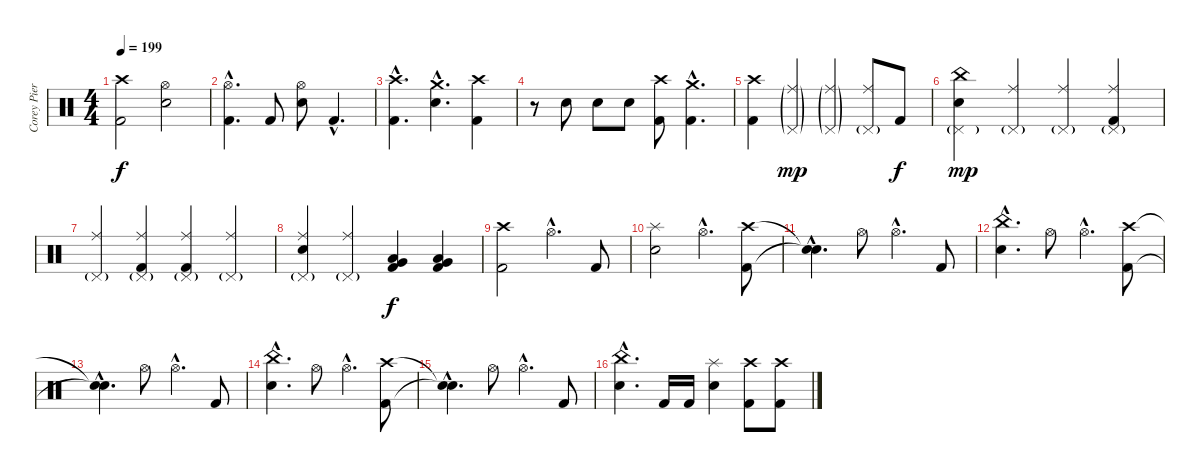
\track ("Corey Pierce (Drums)" "Corey Pier") {instrument percussion}
\staff {score}
\articulation defaults
\ts (4 4)
\tempo 199
\clef neutral
\ks c
("Crash high (hit)" "Kick (hit) 2").2{dy f} ("Hi-Hat (open)" "Snare (hit) 2").2 |
("Hi-Hat (open)"{hac} "Kick (hit) 2"{hac}).4{d} "Kick (hit) 2".8 ("Hi-Hat (open)" "Snare (hit) 2").8 "Kick (hit) 2"{hac}.4{d} |
("Crash high (hit)"{hac} "Kick (hit) 2"{hac}).4{d} ("Crash medium (hit)"{hac} "Snare (hit) 2"{hac}).4{d} ("Crash high (hit)" "Kick (hit) 2").4 |
r.8 "Snare (hit) 2".8 "Snare (hit) 2".8 "Snare (hit) 2".8 ("Crash high (hit)" "Kick (hit) 2").8 ("Crash medium (hit)"{hac} "Kick (hit) 2"{hac}).4{d} |
("Crash high (hit)" "Kick (hit) 2").4 ("Ride (middle)"{g} "Pedal Hi-Hat (hit)"{g}).4{dy mp} ("Ride (middle)"{g} "Pedal Hi-Hat (hit)"{g}).4 ("Pedal Hi-Hat (hit)"{g} "Ride (middle)").8 "Kick (hit) 2".8{dy f} |
("Pedal Hi-Hat (hit)"{g} "China (hit)" "Snare (hit) 2").4{dy mp} ("Pedal Hi-Hat (hit)"{g} "Ride (middle)").4 ("Pedal Hi-Hat (hit)"{g} "Ride (middle)").4 ("Pedal Hi-Hat (hit)"{g} "Ride (middle)" "Kick (hit) 2").4 |
("Pedal Hi-Hat (hit)"{g} "Ride (middle)").4 ("Pedal Hi-Hat (hit)"{g} "Ride (middle)" "Kick (hit) 2").4 ("Pedal Hi-Hat (hit)"{g} "Ride (middle)" "Kick (hit) 2").4 ("Pedal Hi-Hat (hit)"{g} "Ride (middle)").4 |
("Pedal Hi-Hat (hit)"{g} "Ride (middle)" "Snare (hit) 2").4 ("Pedal Hi-Hat (hit)"{g} "Ride (middle)").4 ("Kick (hit) 2" "Low Floor Tom (hit)" "Very Low Tom (hit)").4{dy f} ("Kick (hit) 2" "Very Low Tom (hit)" "Low Floor Tom (hit)").4 |
("Crash high (hit)" "Kick (hit) 2").2 "Hi-Hat (open)"{hac}.4{d} "Kick (hit) 2".8 |
("Splash (hit)" "Snare (hit) 2").2 "Hi-Hat (open)"{hac}.4{d} ("Crash high (hit)" "Kick (hit) 2").8 |
("Snare (hit)"{hac t} "Snare (hit)"{hac t}).4{d} "Hi-Hat (open)".8 "Hi-Hat (open)"{hac}.4{d} "Kick (hit) 2".8 |
("China (hit)"{hac} "Snare (hit) 2"{hac}).4{d} "Hi-Hat (open)".8 "Hi-Hat (open)"{hac}.4{d} ("Crash high (hit)" "Kick (hit) 2").8 |
("Snare (hit)"{hac t} "Snare (hit)"{hac t}).4{d} "Hi-Hat (open)".8 "Hi-Hat (open)"{hac}.4{d} "Kick (hit) 2".8 |
("China (hit)"{hac} "Snare (hit) 2"{hac}).4{d} "Hi-Hat (open)".8 "Hi-Hat (open)"{hac}.4{d} ("Crash high (hit)" "Kick (hit) 2").8 |
("Snare (hit)"{hac t} "Snare (hit)"{hac t}).4{d} "Hi-Hat (open)".8 "Hi-Hat (open)"{hac}.4{d} "Kick (hit) 2".8 |
("China (hit)"{hac} "Snare (hit) 2"{hac}).4{d} "Kick (hit) 2".16 "Kick (hit) 2".16 ("Splash (hit)" "Snare (hit) 2").4 ("Crash high (hit)" "Kick (hit) 2").8 ("Crash high (hit)" "Kick (hit) 2").8
